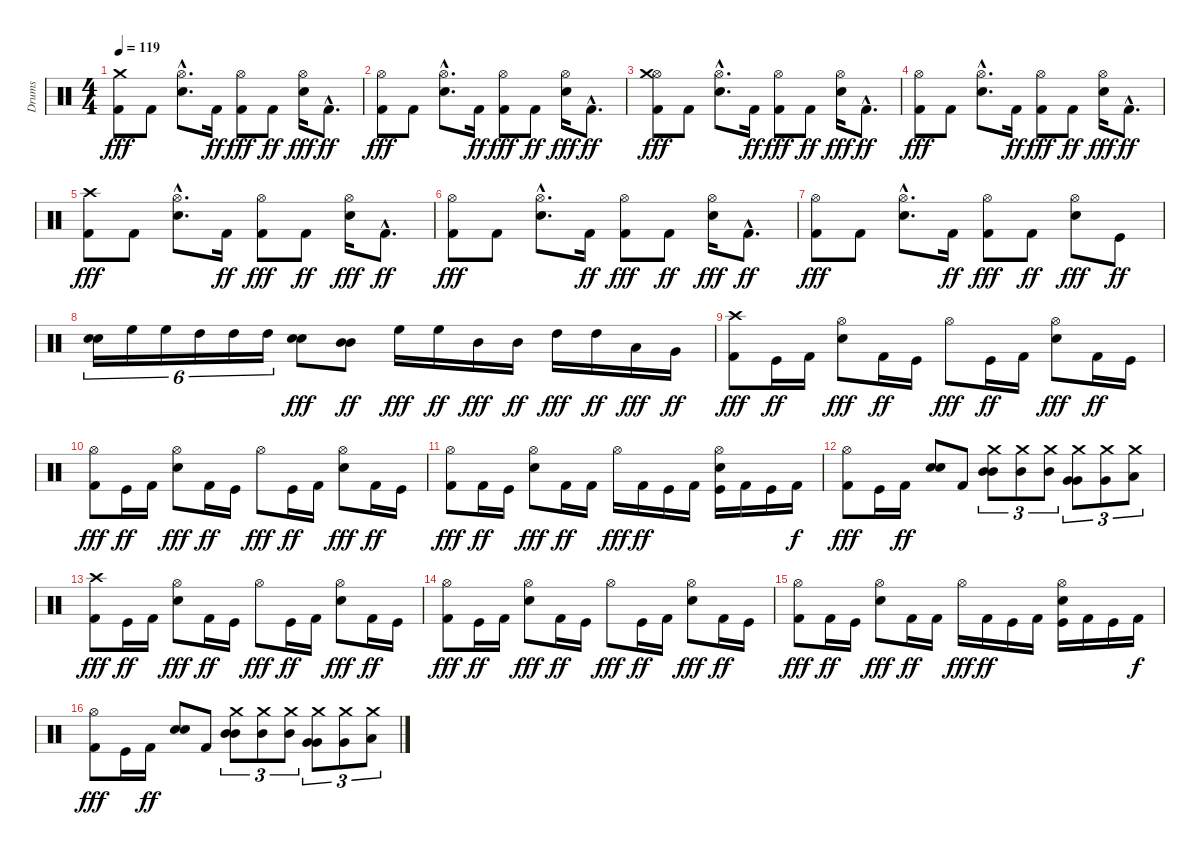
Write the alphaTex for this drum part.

\track ("Drums" "Drums") {instrument percussion}
\staff {score}
\articulation defaults
\ts (4 4)
\tempo 119
\clef neutral
\ks c
("Kick (hit) 2" "Crash medium (hit)").8{dy fff} "Kick (hit) 2".8 ("Hi-Hat (open)" "Snare (hit) 2"{hac}).8{d} "Kick (hit) 2".16{dy ff} ("Hi-Hat (open)" "Kick (hit) 2").8{dy fff} "Kick (hit) 2".8{dy ff} ("Hi-Hat (open)" "Snare (hit) 2").16{dy fff} "Kick (hit) 2"{hac}.8{d dy ff} |
("Hi-Hat (open)" "Kick (hit) 2").8{dy fff} "Kick (hit) 2".8 ("Hi-Hat (open)" "Snare (hit) 2"{hac}).8{d} "Kick (hit) 2".16{dy ff} ("Hi-Hat (open)" "Kick (hit) 2").8{dy fff} "Kick (hit) 2".8{dy ff} ("Hi-Hat (open)" "Snare (hit) 2").16{dy fff} "Kick (hit) 2"{hac}.8{d dy ff} |
("Hi-Hat (open)" "Kick (hit) 2" "Crash medium (hit)").8{dy fff} "Kick (hit) 2".8 ("Hi-Hat (open)" "Snare (hit) 2"{hac}).8{d} "Kick (hit) 2".16{dy ff} ("Hi-Hat (open)" "Kick (hit) 2").8{dy fff} "Kick (hit) 2".8{dy ff} ("Hi-Hat (open)" "Snare (hit) 2").16{dy fff} "Kick (hit) 2"{hac}.8{d dy ff} |
("Hi-Hat (open)" "Kick (hit) 2").8{dy fff} "Kick (hit) 2".8 ("Hi-Hat (open)" "Snare (hit) 2"{hac}).8{d} "Kick (hit) 2".16{dy ff} ("Hi-Hat (open)" "Kick (hit) 2").8{dy fff} "Kick (hit) 2".8{dy ff} ("Hi-Hat (open)" "Snare (hit) 2").16{dy fff} "Kick (hit) 2"{hac}.8{d dy ff} |
("Kick (hit) 2" "Crash high (hit)").8{dy fff} "Kick (hit) 2".8 ("Hi-Hat (open)" "Snare (hit) 2"{hac}).8{d} "Kick (hit) 2".16{dy ff} ("Hi-Hat (open)" "Kick (hit) 2").8{dy fff} "Kick (hit) 2".8{dy ff} ("Hi-Hat (open)" "Snare (hit) 2").16{dy fff} "Kick (hit) 2"{hac}.8{d dy ff} |
("Hi-Hat (open)" "Kick (hit) 2").8{dy fff} "Kick (hit) 2".8 ("Hi-Hat (open)" "Snare (hit) 2"{hac}).8{d} "Kick (hit) 2".16{dy ff} ("Hi-Hat (open)" "Kick (hit) 2").8{dy fff} "Kick (hit) 2".8{dy ff} ("Hi-Hat (open)" "Snare (hit) 2").16{dy fff} "Kick (hit) 2"{hac}.8{d dy ff} |
("Hi-Hat (open)" "Kick (hit) 2").8{dy fff} "Kick (hit) 2".8 ("Hi-Hat (open)" "Snare (hit) 2"{hac}).8{d} "Kick (hit) 2".16{dy ff} ("Hi-Hat (open)" "Kick (hit) 2").8{dy fff} "Kick (hit) 2".8{dy ff} ("Hi-Hat (open)" "Snare (hit) 2").8{dy fff} "Kick (hit)".8{dy ff} |
("Snare (hit) 2" "Snare (hit) 2").16{tu (6 4)} "High Floor Tom (hit)".16{tu (6 4)} "High Floor Tom (hit)".16{tu (6 4)} "High Tom (hit)".16{tu (6 4)} "High Tom (hit)".16{tu (6 4)} "High Tom (hit)".16{tu (6 4)} ("Snare (hit) 2" "Snare (hit) 2").8{dy fff} ("Mid Tom (hit)" "Mid Tom (hit)").8{dy ff} "High Floor Tom (hit)".16{dy fff} "High Floor Tom (hit)".16{dy ff} "Mid Tom (hit)".16{dy fff} "Mid Tom (hit)".16{dy ff} "High Tom (hit)".16{dy fff} "High Tom (hit)".16{dy ff} "Low Tom (hit)".16{dy fff} "Very Low Tom (hit)".16{dy ff} |
("Kick (hit) 2" "Crash high (hit)").8{dy fff} "Kick (hit)".16{dy ff} "Kick (hit) 2".16 ("Hi-Hat (open)" "Snare (hit) 2").8{dy fff} "Kick (hit) 2".16{dy ff} "Kick (hit)".16 "Hi-Hat (open)".8{dy fff} "Kick (hit)".16{dy ff} "Kick (hit) 2".16 ("Hi-Hat (open)" "Snare (hit) 2").8{dy fff} "Kick (hit) 2".16{dy ff} "Kick (hit)".16 |
("Hi-Hat (open)" "Kick (hit) 2").8{dy fff} "Kick (hit)".16{dy ff} "Kick (hit) 2".16 ("Hi-Hat (open)" "Snare (hit) 2").8{dy fff} "Kick (hit) 2".16{dy ff} "Kick (hit)".16 "Hi-Hat (open)".8{dy fff} "Kick (hit)".16{dy ff} "Kick (hit) 2".16 ("Hi-Hat (open)" "Snare (hit) 2").8{dy fff} "Kick (hit) 2".16{dy ff} "Kick (hit)".16 |
("Hi-Hat (open)" "Kick (hit) 2").8{dy fff} "Kick (hit) 2".16{dy ff} "Kick (hit)".16 ("Hi-Hat (open)" "Snare (hit) 2").8{dy fff} "Kick (hit) 2".16{dy ff} "Kick (hit) 2".16 "Hi-Hat (open)".16{dy fff} "Kick (hit) 2".16{dy ff} "Kick (hit)".16 "Kick (hit) 2".16 ("Hi-Hat (open)" "Snare (hit) 2" "Kick (hit)").16 "Kick (hit) 2".16 "Kick (hit)".16 "Kick (hit) 2".16{dy f} |
("Hi-Hat (open)" "Kick (hit) 2").8{dy fff} "Kick (hit)".16 "Kick (hit) 2".16{dy ff} ("Snare (hit) 2" "Snare (hit) 2").8 "Kick (hit) 2".8 ("Mid Tom (hit)" "Crash medium (hit)" "Mid Tom (hit)").8{tu (3 2)} ("Mid Tom (hit)" "Crash medium (hit)").8{tu (3 2)} ("Mid Tom (hit)" "Crash medium (hit)").8{tu (3 2)} ("Very Low Tom (hit)" "Crash medium (hit)" "Very Low Tom (hit)").8{tu (3 2)} ("Very Low Tom (hit)" "Crash medium (hit)").8{tu (3 2)} ("Low Floor Tom (hit)" "Crash medium (hit)").8{tu (3 2)} |
("Kick (hit) 2" "Crash high (hit)").8{dy fff} "Kick (hit)".16{dy ff} "Kick (hit) 2".16 ("Hi-Hat (open)" "Snare (hit) 2").8{dy fff} "Kick (hit) 2".16{dy ff} "Kick (hit)".16 "Hi-Hat (open)".8{dy fff} "Kick (hit)".16{dy ff} "Kick (hit) 2".16 ("Hi-Hat (open)" "Snare (hit) 2").8{dy fff} "Kick (hit) 2".16{dy ff} "Kick (hit)".16 |
("Hi-Hat (open)" "Kick (hit) 2").8{dy fff} "Kick (hit)".16{dy ff} "Kick (hit) 2".16 ("Hi-Hat (open)" "Snare (hit) 2").8{dy fff} "Kick (hit) 2".16{dy ff} "Kick (hit)".16 "Hi-Hat (open)".8{dy fff} "Kick (hit)".16{dy ff} "Kick (hit) 2".16 ("Hi-Hat (open)" "Snare (hit) 2").8{dy fff} "Kick (hit) 2".16{dy ff} "Kick (hit)".16 |
("Hi-Hat (open)" "Kick (hit) 2").8{dy fff} "Kick (hit) 2".16{dy ff} "Kick (hit)".16 ("Hi-Hat (open)" "Snare (hit) 2").8{dy fff} "Kick (hit) 2".16{dy ff} "Kick (hit) 2".16 "Hi-Hat (open)".16{dy fff} "Kick (hit) 2".16{dy ff} "Kick (hit)".16 "Kick (hit) 2".16 ("Hi-Hat (open)" "Snare (hit) 2" "Kick (hit)").16 "Kick (hit) 2".16 "Kick (hit)".16 "Kick (hit) 2".16{dy f} |
("Hi-Hat (open)" "Kick (hit) 2").8{dy fff} "Kick (hit)".16 "Kick (hit) 2".16{dy ff} ("Snare (hit) 2" "Snare (hit) 2").8 "Kick (hit) 2".8 ("Mid Tom (hit)" "Crash medium (hit)" "Mid Tom (hit)").8{tu (3 2)} ("Mid Tom (hit)" "Crash medium (hit)").8{tu (3 2)} ("Mid Tom (hit)" "Crash medium (hit)").8{tu (3 2)} ("Very Low Tom (hit)" "Crash medium (hit)" "Very Low Tom (hit)").8{tu (3 2)} ("Very Low Tom (hit)" "Crash medium (hit)").8{tu (3 2)} ("Low Floor Tom (hit)" "Crash medium (hit)").8{tu (3 2)}
